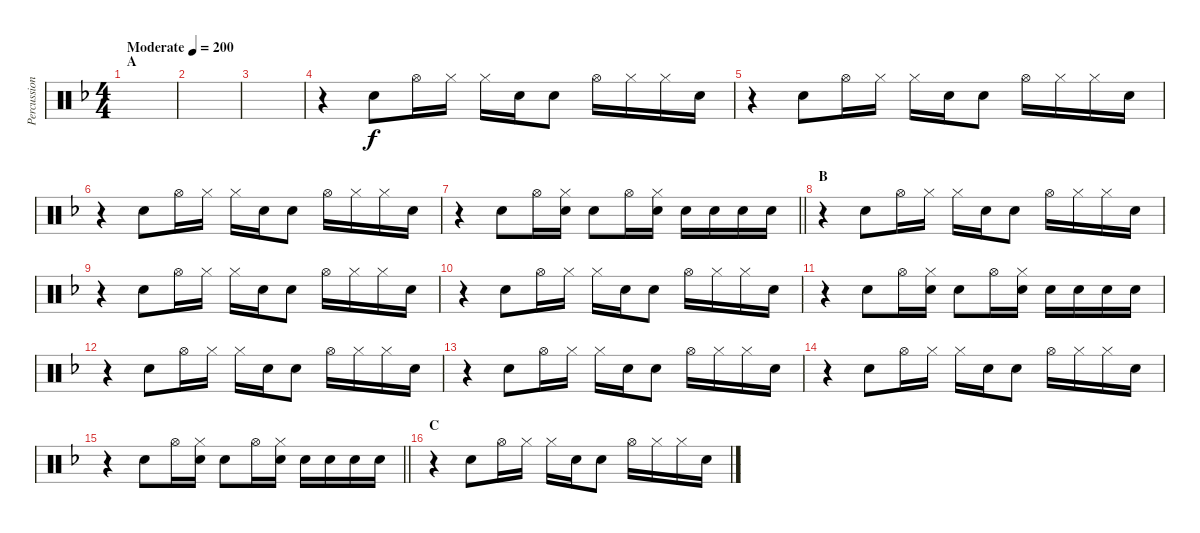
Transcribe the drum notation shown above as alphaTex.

\track ("Percussion (Tainaka Ritsu)" "Percussion") {instrument percussion}
\staff {score}
\articulation defaults
\ts (4 4)
\section ("" "A")
\tempo (200 "Moderate")
\clef neutral
\ks f
|
|
|
r.4 "Electric Snare (hit)".8 "Hi-Hat (open)".16 "Hi-Hat (closed)".16 "Hi-Hat (closed)".16 "Electric Snare (hit)".16 "Electric Snare (hit)".8 "Hi-Hat (open)".16 "Hi-Hat (closed)".16 "Hi-Hat (closed)".16 "Electric Snare (hit)".16 |
r.4 "Electric Snare (hit)".8 "Hi-Hat (open)".16 "Hi-Hat (closed)".16 "Hi-Hat (closed)".16 "Electric Snare (hit)".16 "Electric Snare (hit)".8 "Hi-Hat (open)".16 "Hi-Hat (closed)".16 "Hi-Hat (closed)".16 "Electric Snare (hit)".16 |
r.4 "Electric Snare (hit)".8 "Hi-Hat (open)".16 "Hi-Hat (closed)".16 "Hi-Hat (closed)".16 "Electric Snare (hit)".16 "Electric Snare (hit)".8 "Hi-Hat (open)".16 "Hi-Hat (closed)".16 "Hi-Hat (closed)".16 "Electric Snare (hit)".16 |
\barLineRight lightlight
r.4 "Electric Snare (hit)".8 "Hi-Hat (open)".16 ("Hi-Hat (closed)" "Electric Snare (hit)").16 "Electric Snare (hit)".8 "Hi-Hat (open)".16 ("Hi-Hat (closed)" "Electric Snare (hit)").16 "Electric Snare (hit)".16 "Electric Snare (hit)".16 "Electric Snare (hit)".16 "Electric Snare (hit)".16 |
\section ("" "B")
r.4 "Electric Snare (hit)".8 "Hi-Hat (open)".16 "Hi-Hat (closed)".16 "Hi-Hat (closed)".16 "Electric Snare (hit)".16 "Electric Snare (hit)".8 "Hi-Hat (open)".16 "Hi-Hat (closed)".16 "Hi-Hat (closed)".16 "Electric Snare (hit)".16 |
r.4 "Electric Snare (hit)".8 "Hi-Hat (open)".16 "Hi-Hat (closed)".16 "Hi-Hat (closed)".16 "Electric Snare (hit)".16 "Electric Snare (hit)".8 "Hi-Hat (open)".16 "Hi-Hat (closed)".16 "Hi-Hat (closed)".16 "Electric Snare (hit)".16 |
r.4 "Electric Snare (hit)".8 "Hi-Hat (open)".16 "Hi-Hat (closed)".16 "Hi-Hat (closed)".16 "Electric Snare (hit)".16 "Electric Snare (hit)".8 "Hi-Hat (open)".16 "Hi-Hat (closed)".16 "Hi-Hat (closed)".16 "Electric Snare (hit)".16 |
r.4 "Electric Snare (hit)".8 "Hi-Hat (open)".16 ("Hi-Hat (closed)" "Electric Snare (hit)").16 "Electric Snare (hit)".8 "Hi-Hat (open)".16 ("Hi-Hat (closed)" "Electric Snare (hit)").16 "Electric Snare (hit)".16 "Electric Snare (hit)".16 "Electric Snare (hit)".16 "Electric Snare (hit)".16 |
r.4 "Electric Snare (hit)".8 "Hi-Hat (open)".16 "Hi-Hat (closed)".16 "Hi-Hat (closed)".16 "Electric Snare (hit)".16 "Electric Snare (hit)".8 "Hi-Hat (open)".16 "Hi-Hat (closed)".16 "Hi-Hat (closed)".16 "Electric Snare (hit)".16 |
r.4 "Electric Snare (hit)".8 "Hi-Hat (open)".16 "Hi-Hat (closed)".16 "Hi-Hat (closed)".16 "Electric Snare (hit)".16 "Electric Snare (hit)".8 "Hi-Hat (open)".16 "Hi-Hat (closed)".16 "Hi-Hat (closed)".16 "Electric Snare (hit)".16 |
r.4 "Electric Snare (hit)".8 "Hi-Hat (open)".16 "Hi-Hat (closed)".16 "Hi-Hat (closed)".16 "Electric Snare (hit)".16 "Electric Snare (hit)".8 "Hi-Hat (open)".16 "Hi-Hat (closed)".16 "Hi-Hat (closed)".16 "Electric Snare (hit)".16 |
\barLineRight lightlight
r.4 "Electric Snare (hit)".8 "Hi-Hat (open)".16 ("Hi-Hat (closed)" "Electric Snare (hit)").16 "Electric Snare (hit)".8 "Hi-Hat (open)".16 ("Hi-Hat (closed)" "Electric Snare (hit)").16 "Electric Snare (hit)".16 "Electric Snare (hit)".16 "Electric Snare (hit)".16 "Electric Snare (hit)".16 |
\section ("" "C")
r.4 "Electric Snare (hit)".8 "Hi-Hat (open)".16 "Hi-Hat (closed)".16 "Hi-Hat (closed)".16 "Electric Snare (hit)".16 "Electric Snare (hit)".8 "Hi-Hat (open)".16 "Hi-Hat (closed)".16 "Hi-Hat (closed)".16 "Electric Snare (hit)".16
